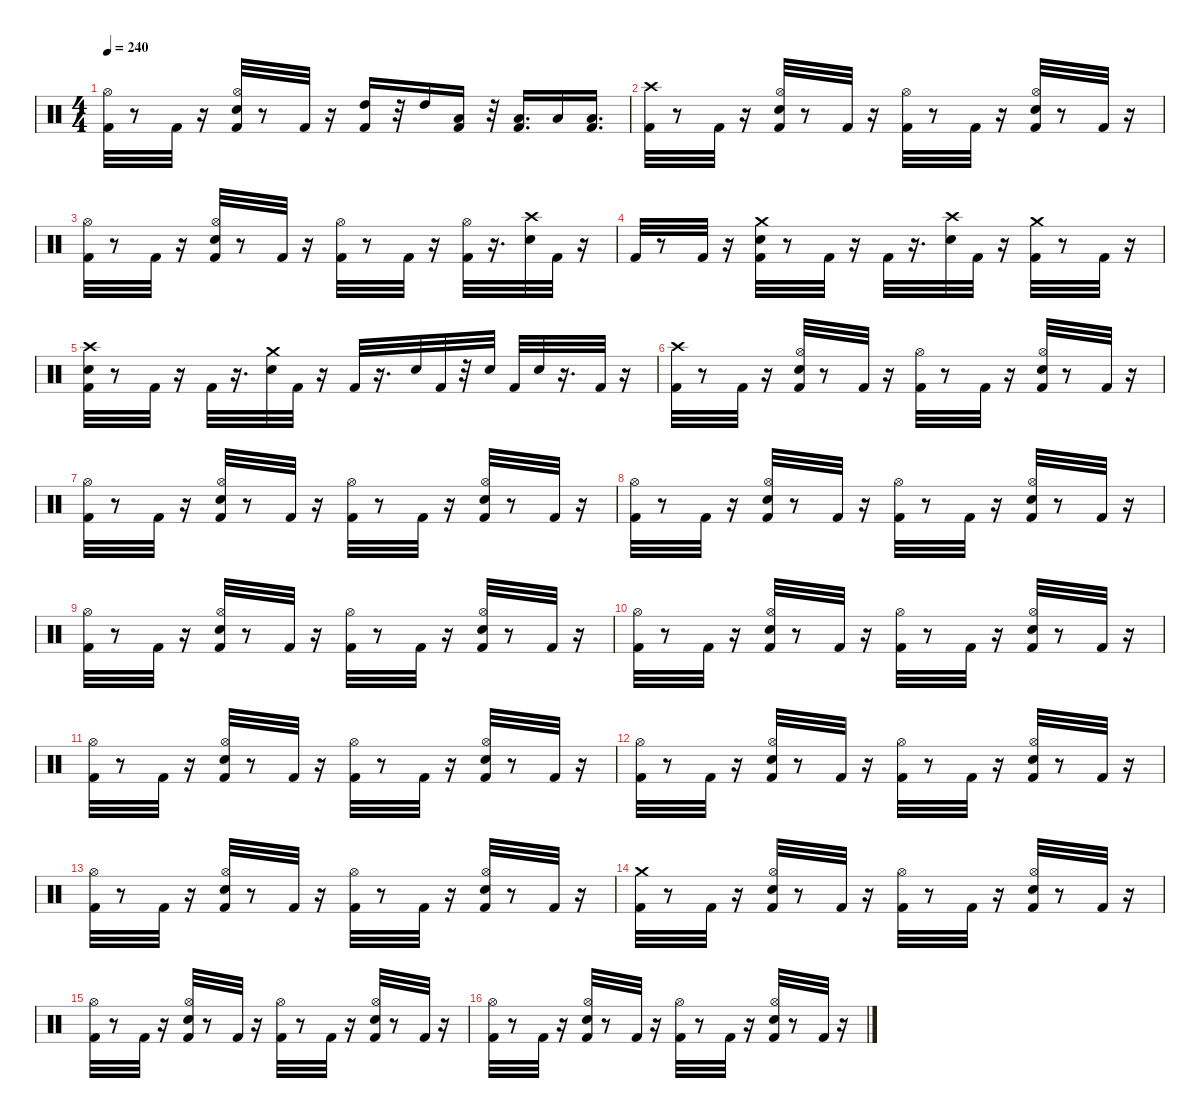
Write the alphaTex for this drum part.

\defaultSystemsLayout 4
\hideDynamics
\bracketExtendMode nobrackets
\singleTrackTrackNamePolicy hidden
\multiTrackTrackNamePolicy hidden
\otherSystemsTrackNameOrientation horizontal
\track ("Drums" "drm.") {instrument percussion}
\staff {score}
\articulation defaults
\ts (4 4)
\tempo 240
\clef neutral
\ks c
("Kick (hit) 2" "Hi-Hat (open)").32{dy f} r.8 "Kick (hit) 2".32 r.16 ("Snare (hit) 2" "Kick (hit) 2" "Hi-Hat (open)").32 r.8 "Kick (hit) 2".32 r.16 ("Kick (hit) 2" "High Tom (hit)").16 r.32 "High Tom (hit)".16{dy fff} ("Kick (hit) 2" "Low Tom (hit)").16{dy f} r.32 ("Kick (hit) 2" "Low Tom (hit)").16{d} "Low Floor Tom (hit)".16{dy fff} ("Kick (hit) 2" "Low Floor Tom (hit)").16{d dy f} |
("Kick (hit) 2" "Crash high (hit)").32 r.8 "Kick (hit) 2".32 r.16 ("Hi-Hat (open)" "Kick (hit) 2" "Snare (hit) 2").32 r.8 "Kick (hit) 2".32 r.16 ("Hi-Hat (open)" "Kick (hit) 2").32 r.8 "Kick (hit) 2".32 r.16 ("Hi-Hat (open)" "Kick (hit) 2" "Snare (hit) 2").32 r.8 "Kick (hit) 2".32 r.16 |
("Kick (hit) 2" "Hi-Hat (open)").32 r.8 "Kick (hit) 2".32 r.16 ("Snare (hit) 2" "Hi-Hat (open)" "Kick (hit) 2").32 r.8 "Kick (hit) 2".32 r.16 ("Hi-Hat (open)" "Kick (hit) 2").32 r.8 "Kick (hit) 2".32 r.16 ("Hi-Hat (open)" "Kick (hit) 2").32 r.16{d} ("Crash high (hit)" "Snare (hit) 2").32 "Kick (hit) 2".32 r.16 |
"Kick (hit) 2".32 r.8 "Kick (hit) 2".32 r.16 ("Snare (hit) 2" "Crash medium (hit)" "Kick (hit) 2").32 r.8 "Kick (hit) 2".32 r.16 "Kick (hit) 2".32 r.16{d} ("Snare (hit) 2" "Crash high (hit)").32 "Kick (hit) 2".32 r.16 ("Crash medium (hit)" "Kick (hit) 2").32 r.8 "Kick (hit) 2".32 r.16 |
("Crash high (hit)" "Kick (hit) 2" "Snare (hit) 2").32 r.8 "Kick (hit) 2".32 r.16 "Kick (hit) 2".32 r.16{d} ("Snare (hit) 2" "Crash medium (hit)").32 "Kick (hit) 2".32 r.16 "Kick (hit) 2".32 r.16{d} "Snare (hit) 2".32 "Kick (hit) 2".32 r.32 "Snare (hit) 2".32 "Kick (hit) 2".32 "Snare (hit) 2".32 r.16{d} "Kick (hit) 2".32 r.16 |
("Kick (hit) 2" "Crash high (hit)").32 r.8 "Kick (hit) 2".32 r.16 ("Hi-Hat (open)" "Snare (hit) 2" "Kick (hit) 2").32 r.8 "Kick (hit) 2".32 r.16 ("Kick (hit) 2" "Hi-Hat (open)").32 r.8 "Kick (hit) 2".32 r.16 ("Hi-Hat (open)" "Kick (hit) 2" "Snare (hit) 2").32 r.8 "Kick (hit) 2".32 r.16 |
("Hi-Hat (open)" "Kick (hit) 2").32 r.8 "Kick (hit) 2".32 r.16 ("Snare (hit) 2" "Kick (hit) 2" "Hi-Hat (open)").32 r.8 "Kick (hit) 2".32 r.16 ("Kick (hit) 2" "Hi-Hat (open)").32 r.8 "Kick (hit) 2".32 r.16 ("Snare (hit) 2" "Kick (hit) 2" "Hi-Hat (open)").32 r.8 "Kick (hit) 2".32 r.16 |
("Hi-Hat (open)" "Kick (hit) 2").32 r.8 "Kick (hit) 2".32 r.16 ("Hi-Hat (open)" "Kick (hit) 2" "Snare (hit) 2").32 r.8 "Kick (hit) 2".32 r.16 ("Kick (hit) 2" "Hi-Hat (open)").32 r.8 "Kick (hit) 2".32 r.16 ("Hi-Hat (open)" "Kick (hit) 2" "Snare (hit) 2").32 r.8 "Kick (hit) 2".32 r.16 |
("Kick (hit) 2" "Hi-Hat (open)").32 r.8 "Kick (hit) 2".32 r.16 ("Hi-Hat (open)" "Kick (hit) 2" "Snare (hit) 2").32 r.8 "Kick (hit) 2".32 r.16 ("Kick (hit) 2" "Hi-Hat (open)").32 r.8 "Kick (hit) 2".32 r.16 ("Hi-Hat (open)" "Kick (hit) 2" "Snare (hit) 2").32 r.8 "Kick (hit) 2".32 r.16 |
("Hi-Hat (open)" "Kick (hit) 2").32 r.8 "Kick (hit) 2".32 r.16 ("Kick (hit) 2" "Hi-Hat (open)" "Snare (hit) 2").32 r.8 "Kick (hit) 2".32 r.16 ("Kick (hit) 2" "Hi-Hat (open)").32 r.8 "Kick (hit) 2".32 r.16 ("Snare (hit) 2" "Hi-Hat (open)" "Kick (hit) 2").32 r.8 "Kick (hit) 2".32 r.16 |
("Kick (hit) 2" "Hi-Hat (open)").32 r.8 "Kick (hit) 2".32 r.16 ("Snare (hit) 2" "Hi-Hat (open)" "Kick (hit) 2").32 r.8 "Kick (hit) 2".32 r.16 ("Hi-Hat (open)" "Kick (hit) 2").32 r.8 "Kick (hit) 2".32 r.16 ("Hi-Hat (open)" "Snare (hit) 2" "Kick (hit) 2").32 r.8 "Kick (hit) 2".32 r.16 |
("Hi-Hat (open)" "Kick (hit) 2").32 r.8 "Kick (hit) 2".32 r.16 ("Snare (hit) 2" "Hi-Hat (open)" "Kick (hit) 2").32 r.8 "Kick (hit) 2".32 r.16 ("Kick (hit) 2" "Hi-Hat (open)").32 r.8 "Kick (hit) 2".32 r.16 ("Snare (hit) 2" "Kick (hit) 2" "Hi-Hat (open)").32 r.8 "Kick (hit) 2".32 r.16 |
("Hi-Hat (open)" "Kick (hit) 2").32 r.8 "Kick (hit) 2".32 r.16 ("Snare (hit) 2" "Hi-Hat (open)" "Kick (hit) 2").32 r.8 "Kick (hit) 2".32 r.16 ("Kick (hit) 2" "Hi-Hat (open)").32 r.8 "Kick (hit) 2".32 r.16 ("Snare (hit) 2" "Hi-Hat (open)" "Kick (hit) 2").32 r.8 "Kick (hit) 2".32 r.16 |
("Kick (hit) 2" "Crash medium (hit)").32 r.8 "Kick (hit) 2".32 r.16 ("Snare (hit) 2" "Kick (hit) 2" "Hi-Hat (open)").32 r.8 "Kick (hit) 2".32 r.16 ("Kick (hit) 2" "Hi-Hat (open)").32 r.8 "Kick (hit) 2".32 r.16 ("Kick (hit) 2" "Hi-Hat (open)" "Snare (hit) 2").32 r.8 "Kick (hit) 2".32 r.16 |
("Kick (hit) 2" "Hi-Hat (open)").32 r.8 "Kick (hit) 2".32 r.16 ("Hi-Hat (open)" "Kick (hit) 2" "Snare (hit) 2").32 r.8 "Kick (hit) 2".32 r.16 ("Kick (hit) 2" "Hi-Hat (open)").32 r.8 "Kick (hit) 2".32 r.16 ("Snare (hit) 2" "Hi-Hat (open)" "Kick (hit) 2").32 r.8 "Kick (hit) 2".32 r.16 |
("Hi-Hat (open)" "Kick (hit) 2").32 r.8 "Kick (hit) 2".32 r.16 ("Snare (hit) 2" "Hi-Hat (open)" "Kick (hit) 2").32 r.8 "Kick (hit) 2".32 r.16 ("Hi-Hat (open)" "Kick (hit) 2").32 r.8 "Kick (hit) 2".32 r.16 ("Hi-Hat (open)" "Snare (hit) 2" "Kick (hit) 2").32 r.8 "Kick (hit) 2".32 r.16
